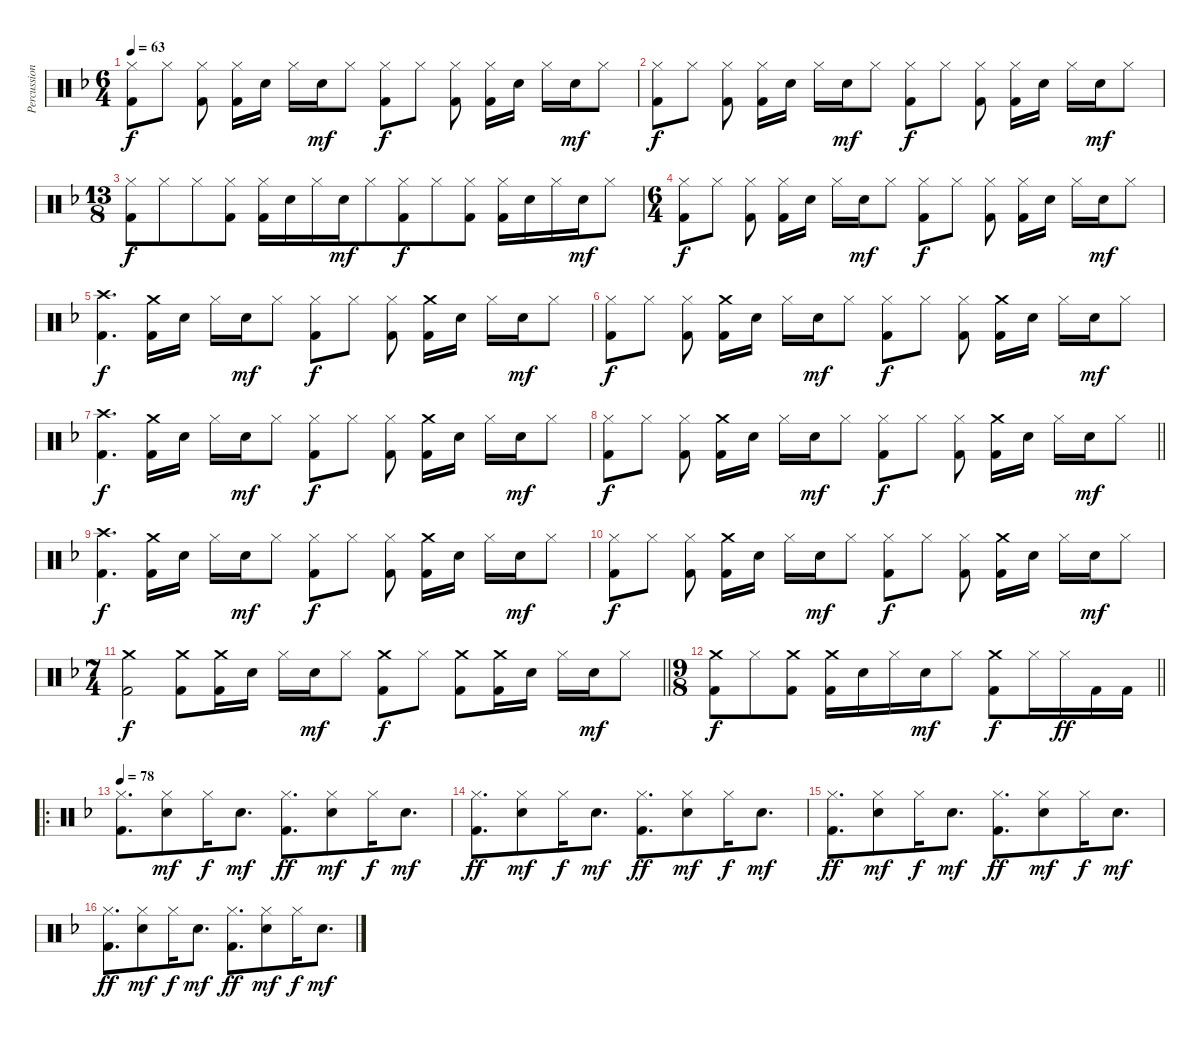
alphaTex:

\track ("Percussion" "Percussion") {instrument percussion}
\staff {score}
\articulation defaults
\ts (6 4)
\tempo 63
\clef neutral
\ks f
("Hi-Hat (closed)" "Kick (hit) 2").8{dy f} "Hi-Hat (closed)".8 ("Hi-Hat (closed)" "Kick (hit) 2").8{beam split} ("Hi-Hat (closed)" "Kick (hit) 2").16 "Electric Snare (hit)".16 "Hi-Hat (closed)".16 "Electric Snare (hit)".16{dy mf} "Hi-Hat (closed)".8 ("Hi-Hat (closed)" "Kick (hit) 2").8{dy f} "Hi-Hat (closed)".8 ("Hi-Hat (closed)" "Kick (hit) 2").8{beam split} ("Hi-Hat (closed)" "Kick (hit) 2").16 "Electric Snare (hit)".16 "Hi-Hat (closed)".16 "Electric Snare (hit)".16{dy mf} "Hi-Hat (closed)".8 |
("Hi-Hat (closed)" "Kick (hit) 2").8{dy f} "Hi-Hat (closed)".8 ("Hi-Hat (closed)" "Kick (hit) 2").8{beam split} ("Hi-Hat (closed)" "Kick (hit) 2").16 "Electric Snare (hit)".16 "Hi-Hat (closed)".16 "Electric Snare (hit)".16{dy mf} "Hi-Hat (closed)".8 ("Hi-Hat (closed)" "Kick (hit) 2").8{dy f} "Hi-Hat (closed)".8 ("Hi-Hat (closed)" "Kick (hit) 2").8{beam split} ("Hi-Hat (closed)" "Kick (hit) 2").16 "Electric Snare (hit)".16 "Hi-Hat (closed)".16 "Electric Snare (hit)".16{dy mf} "Hi-Hat (closed)".8 |
\ts (13 8)
("Hi-Hat (closed)" "Kick (hit) 2").8{dy f beam merge} "Hi-Hat (closed)".8{beam merge} "Hi-Hat (closed)".8{beam merge} ("Hi-Hat (closed)" "Kick (hit) 2").8{beam split} ("Hi-Hat (closed)" "Kick (hit) 2").16 "Electric Snare (hit)".16{beam merge} "Hi-Hat (closed)".16 "Electric Snare (hit)".16{dy mf beam merge} "Hi-Hat (closed)".8 ("Hi-Hat (closed)" "Kick (hit) 2").8{dy f beam merge} "Hi-Hat (closed)".8{beam merge} ("Hi-Hat (closed)" "Kick (hit) 2").8{beam split} ("Hi-Hat (closed)" "Kick (hit) 2").16 "Electric Snare (hit)".16{beam merge} "Hi-Hat (closed)".16 "Electric Snare (hit)".16{dy mf beam merge} "Hi-Hat (closed)".8 |
\ts (6 4)
("Hi-Hat (closed)" "Kick (hit) 2").8{dy f} "Hi-Hat (closed)".8 ("Hi-Hat (closed)" "Kick (hit) 2").8{beam split} ("Hi-Hat (closed)" "Kick (hit) 2").16 "Electric Snare (hit)".16 "Hi-Hat (closed)".16 "Electric Snare (hit)".16{dy mf} "Hi-Hat (closed)".8 ("Hi-Hat (closed)" "Kick (hit) 2").8{dy f} "Hi-Hat (closed)".8 ("Hi-Hat (closed)" "Kick (hit) 2").8{beam split} ("Hi-Hat (closed)" "Kick (hit) 2").16 "Electric Snare (hit)".16 "Hi-Hat (closed)".16 "Electric Snare (hit)".16{dy mf} "Hi-Hat (closed)".8 |
("Crash high (hit)" "Kick (hit) 2").4{d dy f} ("Crash medium (hit)" "Kick (hit) 2").16 "Electric Snare (hit)".16 "Hi-Hat (closed)".16 "Electric Snare (hit)".16{dy mf} "Hi-Hat (closed)".8 ("Hi-Hat (closed)" "Kick (hit) 2").8{dy f} "Hi-Hat (closed)".8 ("Hi-Hat (closed)" "Kick (hit) 2").8{beam split} ("Crash medium (hit)" "Kick (hit) 2").16 "Electric Snare (hit)".16 "Hi-Hat (closed)".16 "Electric Snare (hit)".16{dy mf} "Hi-Hat (closed)".8 |
("Hi-Hat (closed)" "Kick (hit) 2").8{dy f} "Hi-Hat (closed)".8 ("Hi-Hat (closed)" "Kick (hit) 2").8{beam split} ("Crash medium (hit)" "Kick (hit) 2").16 "Electric Snare (hit)".16 "Hi-Hat (closed)".16 "Electric Snare (hit)".16{dy mf} "Hi-Hat (closed)".8 ("Hi-Hat (closed)" "Kick (hit) 2").8{dy f} "Hi-Hat (closed)".8 ("Hi-Hat (closed)" "Kick (hit) 2").8{beam split} ("Crash medium (hit)" "Kick (hit) 2").16 "Electric Snare (hit)".16 "Hi-Hat (closed)".16 "Electric Snare (hit)".16{dy mf} "Hi-Hat (closed)".8 |
("Crash high (hit)" "Kick (hit) 2").4{d dy f} ("Crash medium (hit)" "Kick (hit) 2").16 "Electric Snare (hit)".16 "Hi-Hat (closed)".16 "Electric Snare (hit)".16{dy mf} "Hi-Hat (closed)".8 ("Hi-Hat (closed)" "Kick (hit) 2").8{dy f} "Hi-Hat (closed)".8 ("Hi-Hat (closed)" "Kick (hit) 2").8{beam split} ("Crash medium (hit)" "Kick (hit) 2").16 "Electric Snare (hit)".16 "Hi-Hat (closed)".16 "Electric Snare (hit)".16{dy mf} "Hi-Hat (closed)".8 |
\barLineRight lightlight
("Hi-Hat (closed)" "Kick (hit) 2").8{dy f} "Hi-Hat (closed)".8 ("Hi-Hat (closed)" "Kick (hit) 2").8{beam split} ("Crash medium (hit)" "Kick (hit) 2").16 "Electric Snare (hit)".16 "Hi-Hat (closed)".16 "Electric Snare (hit)".16{dy mf} "Hi-Hat (closed)".8 ("Hi-Hat (closed)" "Kick (hit) 2").8{dy f} "Hi-Hat (closed)".8 ("Hi-Hat (closed)" "Kick (hit) 2").8{beam split} ("Crash medium (hit)" "Kick (hit) 2").16 "Electric Snare (hit)".16 "Hi-Hat (closed)".16 "Electric Snare (hit)".16{dy mf} "Hi-Hat (closed)".8 |
("Crash high (hit)" "Kick (hit) 2").4{d dy f} ("Crash medium (hit)" "Kick (hit) 2").16 "Electric Snare (hit)".16 "Hi-Hat (closed)".16 "Electric Snare (hit)".16{dy mf} "Hi-Hat (closed)".8 ("Hi-Hat (closed)" "Kick (hit) 2").8{dy f} "Hi-Hat (closed)".8 ("Hi-Hat (closed)" "Kick (hit) 2").8{beam split} ("Crash medium (hit)" "Kick (hit) 2").16 "Electric Snare (hit)".16 "Hi-Hat (closed)".16 "Electric Snare (hit)".16{dy mf} "Hi-Hat (closed)".8 |
("Hi-Hat (closed)" "Kick (hit) 2").8{dy f} "Hi-Hat (closed)".8 ("Hi-Hat (closed)" "Kick (hit) 2").8{beam split} ("Crash medium (hit)" "Kick (hit) 2").16 "Electric Snare (hit)".16 "Hi-Hat (closed)".16 "Electric Snare (hit)".16{dy mf} "Hi-Hat (closed)".8 ("Hi-Hat (closed)" "Kick (hit) 2").8{dy f} "Hi-Hat (closed)".8 ("Hi-Hat (closed)" "Kick (hit) 2").8{beam split} ("Crash medium (hit)" "Kick (hit) 2").16 "Electric Snare (hit)".16 "Hi-Hat (closed)".16 "Electric Snare (hit)".16{dy mf} "Hi-Hat (closed)".8 |
\ts (7 4)
\barLineRight lightlight
("Crash medium (hit)" "Kick (hit) 2").2{dy f} ("Crash medium (hit)" "Kick (hit) 2").8 ("Crash medium (hit)" "Kick (hit) 2").16 "Electric Snare (hit)".16 "Hi-Hat (closed)".16 "Electric Snare (hit)".16{dy mf} "Hi-Hat (closed)".8 ("Crash medium (hit)" "Kick (hit) 2").8{dy f} "Hi-Hat (closed)".8 ("Crash medium (hit)" "Kick (hit) 2").8 ("Crash medium (hit)" "Kick (hit) 2").16 "Electric Snare (hit)".16 "Hi-Hat (closed)".16 "Electric Snare (hit)".16{dy mf} "Hi-Hat (closed)".8 |
\ts (9 8)
\barLineRight lightlight
("Crash medium (hit)" "Kick (hit) 2").8{dy f} "Hi-Hat (closed)".8 ("Crash medium (hit)" "Kick (hit) 2").8 ("Crash medium (hit)" "Kick (hit) 2").16 "Electric Snare (hit)".16 "Hi-Hat (closed)".16 "Electric Snare (hit)".16{dy mf} "Hi-Hat (closed)".8 ("Crash medium (hit)" "Kick (hit) 2").8{dy f} "Hi-Hat (closed)".16 "Hi-Hat (closed)".16{dy ff} "Kick (hit) 2".16 "Kick (hit) 2".16 |
\ro
\tempo 78
("Hi-Hat (closed)" "Kick (hit) 2").8{d} ("Hi-Hat (closed)" "Electric Snare (hit)").8{dy mf} "Hi-Hat (closed)".16{dy f beam merge} "Electric Snare (hit)".8{d dy mf beam split} ("Hi-Hat (closed)" "Kick (hit) 2").8{d dy ff beam merge} ("Hi-Hat (closed)" "Electric Snare (hit)").8{dy mf} "Hi-Hat (closed)".16{dy f} "Electric Snare (hit)".8{d dy mf} |
("Hi-Hat (closed)" "Kick (hit) 2").8{d dy ff} ("Hi-Hat (closed)" "Electric Snare (hit)").8{dy mf} "Hi-Hat (closed)".16{dy f beam merge} "Electric Snare (hit)".8{d dy mf beam split} ("Hi-Hat (closed)" "Kick (hit) 2").8{d dy ff beam merge} ("Hi-Hat (closed)" "Electric Snare (hit)").8{dy mf} "Hi-Hat (closed)".16{dy f} "Electric Snare (hit)".8{d dy mf} |
("Hi-Hat (closed)" "Kick (hit) 2").8{d dy ff} ("Hi-Hat (closed)" "Electric Snare (hit)").8{dy mf} "Hi-Hat (closed)".16{dy f beam merge} "Electric Snare (hit)".8{d dy mf beam split} ("Hi-Hat (closed)" "Kick (hit) 2").8{d dy ff beam merge} ("Hi-Hat (closed)" "Electric Snare (hit)").8{dy mf} "Hi-Hat (closed)".16{dy f} "Electric Snare (hit)".8{d dy mf} |
("Hi-Hat (closed)" "Kick (hit) 2").8{d dy ff} ("Hi-Hat (closed)" "Electric Snare (hit)").8{dy mf} "Hi-Hat (closed)".16{dy f beam merge} "Electric Snare (hit)".8{d dy mf beam split} ("Hi-Hat (closed)" "Kick (hit) 2").8{d dy ff beam merge} ("Hi-Hat (closed)" "Electric Snare (hit)").8{dy mf} "Hi-Hat (closed)".16{dy f} "Electric Snare (hit)".8{d dy mf}
